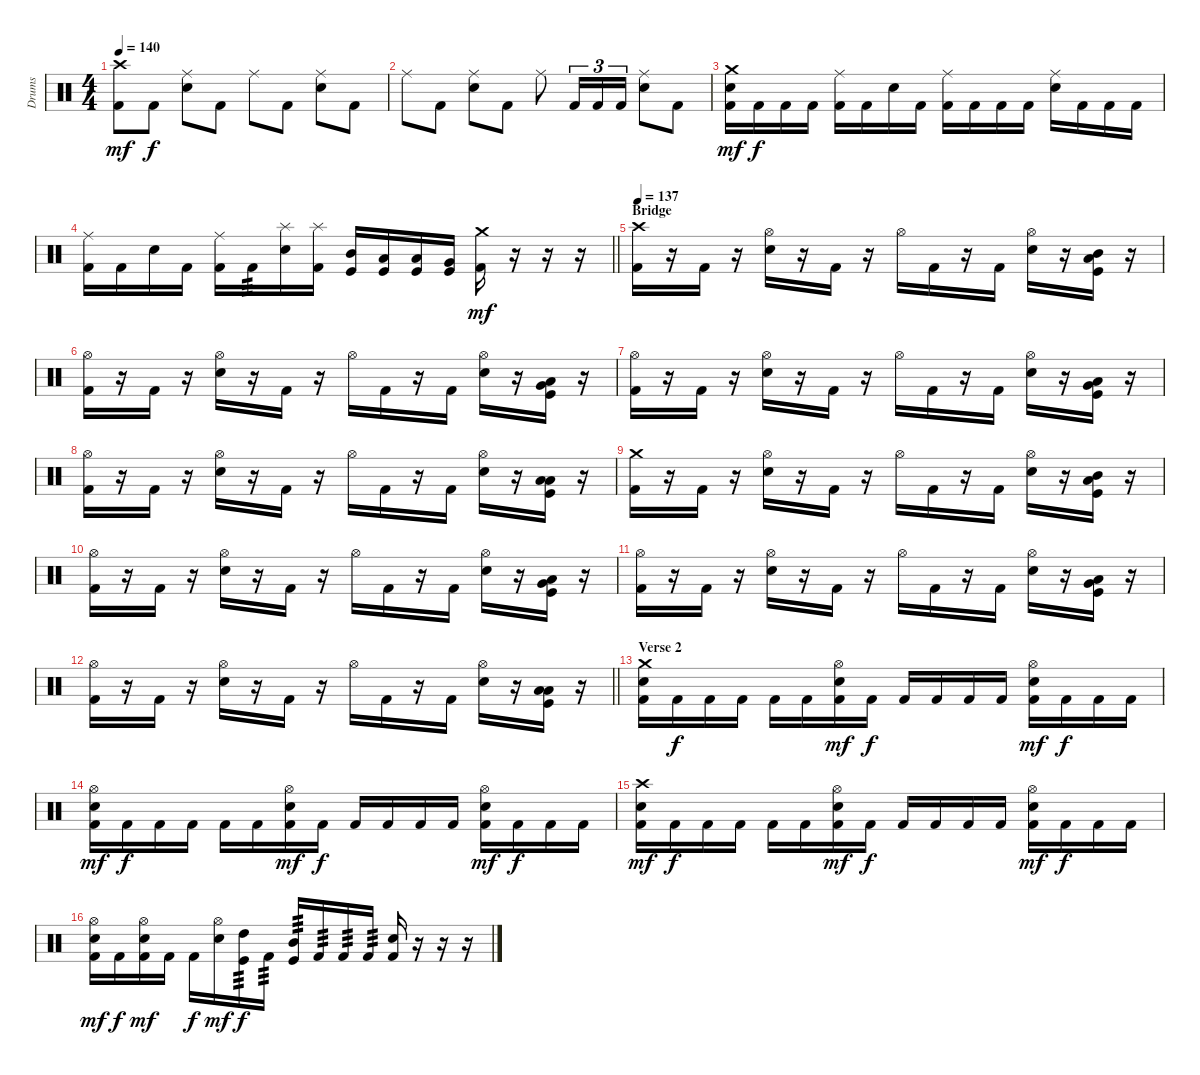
\track ("Drums" "Drums") {instrument percussion}
\staff {score}
\articulation defaults
\ts (4 4)
\tempo 140
\clef neutral
\ks c
("Crash high (hit)" "Kick (hit) 2").8{dy mf} "Kick (hit) 2".8{dy f} ("Ride (middle)" "Electric Snare (hit)").8 "Kick (hit) 2".8 "Ride (middle)".8 "Kick (hit) 2".8 ("Ride (middle)" "Electric Snare (hit)").8 "Kick (hit) 2".8 |
"Ride (middle)".8 "Kick (hit) 2".8 ("Ride (middle)" "Electric Snare (hit)").8 "Kick (hit) 2".8 "Ride (middle)".8 "Kick (hit) 2".16{tu (3 2)} "Kick (hit) 2".16{tu (3 2)} "Kick (hit) 2".16{tu (3 2)} ("Ride (middle)" "Electric Snare (hit)").8 "Kick (hit) 2".8 |
("Crash medium (hit)" "Electric Snare (hit)" "Kick (hit) 2").16{dy mf} "Kick (hit) 2".16{dy f} "Kick (hit) 2".16 "Kick (hit) 2".16 ("Ride (middle)" "Kick (hit) 2").16 "Kick (hit) 2".16 "Electric Snare (hit)".16 "Kick (hit) 2".16 ("Ride (middle)" "Kick (hit) 2").16 "Kick (hit) 2".16 "Kick (hit) 2".16 "Kick (hit) 2".16 ("Ride (middle)" "Electric Snare (hit)").16 "Kick (hit) 2".16 "Kick (hit) 2".16 "Kick (hit) 2".16 |
\barLineRight lightlight
("Ride (middle)" "Kick (hit) 2").16 "Kick (hit) 2".16 "Electric Snare (hit)".16 "Kick (hit) 2".16 ("Ride (middle)" "Kick (hit) 2").16 "Kick (hit) 2".16{tp 3} ("Splash (hit)" "Electric Snare (hit)").16 ("Splash (hit)" "Kick (hit) 2").16 ("Mid Tom (hit)" "Kick (hit)").16 ("Low Tom (hit)" "Kick (hit)").16 ("Low Tom (hit)" "Kick (hit)").16 ("Very Low Tom (hit)" "Kick (hit)").16 ("Crash medium (hit)" "Kick (hit) 2").16{dy mf} r.16 r.16 r.16 |
\section ("" "Bridge")
\tempo 137
("Crash high (hit)" "Kick (hit) 2").16 r.16 "Kick (hit) 2".16 r.16 ("Hi-Hat (open)" "Electric Snare (hit)").16 r.16 "Kick (hit) 2".16 r.16 "Hi-Hat (open)".16 "Kick (hit) 2".16 r.16 "Kick (hit) 2".16 ("Hi-Hat (open)" "Electric Snare (hit)").16 r.16 ("Mid Tom (hit)" "Low Tom (hit)" "Kick (hit)").16 r.16 |
("Hi-Hat (open)" "Kick (hit) 2").16 r.16 "Kick (hit) 2".16 r.16 ("Hi-Hat (open)" "Electric Snare (hit)").16 r.16 "Kick (hit) 2".16 r.16 "Hi-Hat (open)".16 "Kick (hit) 2".16 r.16 "Kick (hit) 2".16 ("Hi-Hat (open)" "Electric Snare (hit)").16 r.16 ("Low Tom (hit)" "Very Low Tom (hit)" "Kick (hit)").16 r.16 |
("Hi-Hat (open)" "Kick (hit) 2").16 r.16 "Kick (hit) 2".16 r.16 ("Hi-Hat (open)" "Electric Snare (hit)").16 r.16 "Kick (hit) 2".16 r.16 "Hi-Hat (open)".16 "Kick (hit) 2".16 r.16 "Kick (hit) 2".16 ("Hi-Hat (open)" "Electric Snare (hit)").16 r.16 ("Very Low Tom (hit)" "Low Floor Tom (hit)" "Kick (hit)").16 r.16 |
("Hi-Hat (open)" "Kick (hit) 2").16 r.16 "Kick (hit) 2".16 r.16 ("Hi-Hat (open)" "Electric Snare (hit)").16 r.16 "Kick (hit) 2".16 r.16 "Hi-Hat (open)".16 "Kick (hit) 2".16 r.16 "Kick (hit) 2".16 ("Hi-Hat (open)" "Electric Snare (hit)").16 r.16 ("Low Floor Tom (hit)" "Low Floor Tom (hit)" "Kick (hit)").16 r.16 |
("Crash medium (hit)" "Kick (hit) 2").16 r.16 "Kick (hit) 2".16 r.16 ("Hi-Hat (open)" "Electric Snare (hit)").16 r.16 "Kick (hit) 2".16 r.16 "Hi-Hat (open)".16 "Kick (hit) 2".16 r.16 "Kick (hit) 2".16 ("Hi-Hat (open)" "Electric Snare (hit)").16 r.16 ("Mid Tom (hit)" "Low Tom (hit)" "Kick (hit)").16 r.16 |
("Hi-Hat (open)" "Kick (hit) 2").16 r.16 "Kick (hit) 2".16 r.16 ("Hi-Hat (open)" "Electric Snare (hit)").16 r.16 "Kick (hit) 2".16 r.16 "Hi-Hat (open)".16 "Kick (hit) 2".16 r.16 "Kick (hit) 2".16 ("Hi-Hat (open)" "Electric Snare (hit)").16 r.16 ("Low Tom (hit)" "Very Low Tom (hit)" "Kick (hit)").16 r.16 |
("Hi-Hat (open)" "Kick (hit) 2").16 r.16 "Kick (hit) 2".16 r.16 ("Hi-Hat (open)" "Electric Snare (hit)").16 r.16 "Kick (hit) 2".16 r.16 "Hi-Hat (open)".16 "Kick (hit) 2".16 r.16 "Kick (hit) 2".16 ("Hi-Hat (open)" "Electric Snare (hit)").16 r.16 ("Very Low Tom (hit)" "Low Floor Tom (hit)" "Kick (hit)").16 r.16 |
\barLineRight lightlight
("Hi-Hat (open)" "Kick (hit) 2").16 r.16 "Kick (hit) 2".16 r.16 ("Hi-Hat (open)" "Electric Snare (hit)").16 r.16 "Kick (hit) 2".16 r.16 "Hi-Hat (open)".16 "Kick (hit) 2".16 r.16 "Kick (hit) 2".16 ("Hi-Hat (open)" "Electric Snare (hit)").16 r.16 ("Low Floor Tom (hit)" "Low Floor Tom (hit)" "Kick (hit)").16 r.16 |
\section ("" "Verse 2")
("Crash medium (hit)" "Electric Snare (hit)" "Kick (hit) 2").16 "Kick (hit) 2".16{dy f} "Kick (hit) 2".16 "Kick (hit) 2".16 "Kick (hit) 2".16 "Kick (hit) 2".16 ("Hi-Hat (open)" "Electric Snare (hit)" "Kick (hit) 2").16{dy mf} "Kick (hit) 2".16{dy f} "Kick (hit) 2".16 "Kick (hit) 2".16 "Kick (hit) 2".16 "Kick (hit) 2".16 ("Hi-Hat (open)" "Electric Snare (hit)" "Kick (hit) 2").16{dy mf} "Kick (hit) 2".16{dy f} "Kick (hit) 2".16 "Kick (hit) 2".16 |
("Hi-Hat (open)" "Electric Snare (hit)" "Kick (hit) 2").16{dy mf} "Kick (hit) 2".16{dy f} "Kick (hit) 2".16 "Kick (hit) 2".16 "Kick (hit) 2".16 "Kick (hit) 2".16 ("Hi-Hat (open)" "Electric Snare (hit)" "Kick (hit) 2").16{dy mf} "Kick (hit) 2".16{dy f} "Kick (hit) 2".16 "Kick (hit) 2".16 "Kick (hit) 2".16 "Kick (hit) 2".16 ("Hi-Hat (open)" "Electric Snare (hit)" "Kick (hit) 2").16{dy mf} "Kick (hit) 2".16{dy f} "Kick (hit) 2".16 "Kick (hit) 2".16 |
("Crash high (hit)" "Electric Snare (hit)" "Kick (hit) 2").16{dy mf} "Kick (hit) 2".16{dy f} "Kick (hit) 2".16 "Kick (hit) 2".16 "Kick (hit) 2".16 "Kick (hit) 2".16 ("Hi-Hat (open)" "Electric Snare (hit)" "Kick (hit) 2").16{dy mf} "Kick (hit) 2".16{dy f} "Kick (hit) 2".16 "Kick (hit) 2".16 "Kick (hit) 2".16 "Kick (hit) 2".16 ("Hi-Hat (open)" "Electric Snare (hit)" "Kick (hit) 2").16{dy mf} "Kick (hit) 2".16{dy f} "Kick (hit) 2".16 "Kick (hit) 2".16 |
("Hi-Hat (open)" "Electric Snare (hit)" "Kick (hit) 2").16{dy mf} "Kick (hit) 2".16{dy f} ("Hi-Hat (open)" "Electric Snare (hit)" "Kick (hit) 2").16{dy mf} "Kick (hit) 2".16 "Kick (hit) 2".16{dy f} ("Hi-Hat (open)" "Electric Snare (hit)").16{dy mf} ("High Tom (hit)" "Kick (hit)").16{tp 3 dy f} "Kick (hit) 2".16{tp 3} ("Mid Tom (hit)" "Kick (hit)").16{tp 3} "Kick (hit) 2".16{tp 3} "Kick (hit) 2".16{tp 3} "Kick (hit) 2".16{tp 3} ("Electric Snare (hit)" "Kick (hit) 2").16 r.16 r.16 r.16
